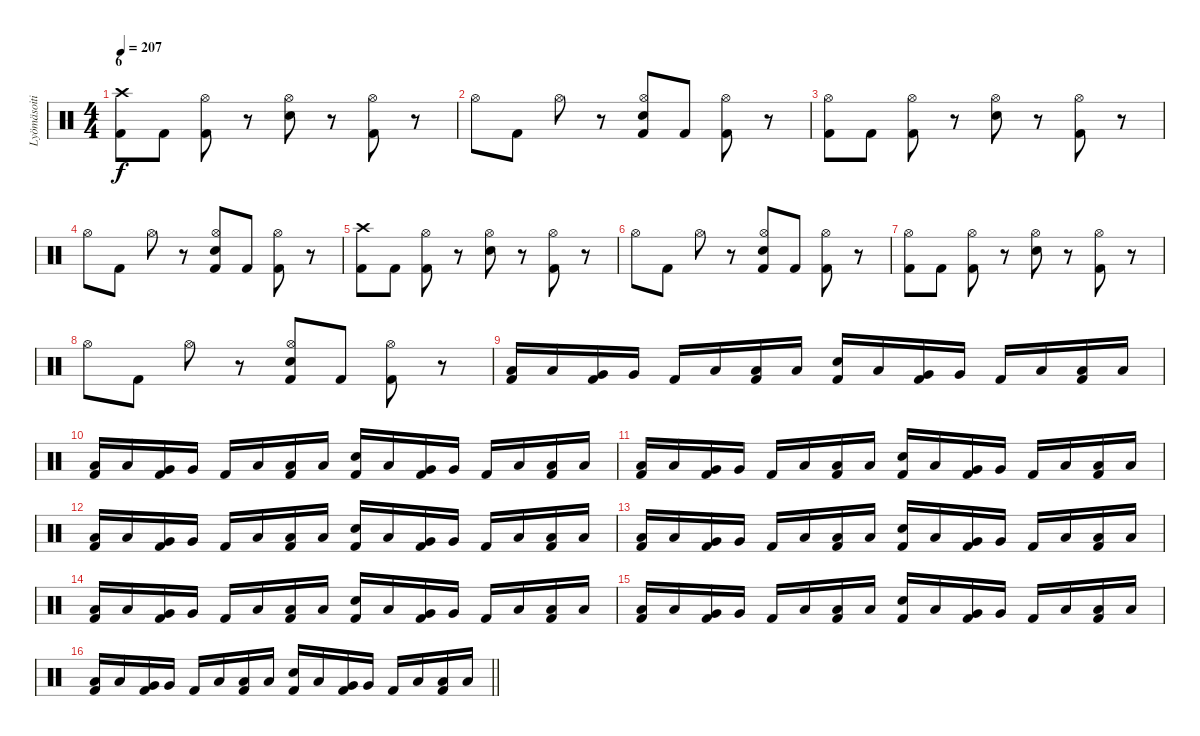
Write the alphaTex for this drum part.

\track ("Lyömäsoitin" "Lyömäsoiti") {instrument percussion}
\staff {score}
\articulation defaults
\ts (4 4)
\section ("" "6")
\tempo 207
\clef neutral
\ks c
("Crash high (hit)" "Kick (hit) 2").8{dy f} "Kick (hit) 2".8 ("Hi-Hat (open)" "Kick (hit) 2").8 r.8 ("Hi-Hat (open)" "Snare (hit) 2").8 r.8 ("Hi-Hat (open)" "Kick (hit) 2").8 r.8 |
"Hi-Hat (open)".8 "Kick (hit) 2".8 "Hi-Hat (open)".8 r.8 ("Hi-Hat (open)" "Snare (hit) 2" "Kick (hit) 2").8 "Kick (hit) 2".8 ("Hi-Hat (open)" "Kick (hit) 2").8 r.8 |
("Hi-Hat (open)" "Kick (hit) 2").8 "Kick (hit) 2".8 ("Hi-Hat (open)" "Kick (hit) 2").8 r.8 ("Hi-Hat (open)" "Snare (hit) 2").8 r.8 ("Hi-Hat (open)" "Kick (hit) 2").8 r.8 |
"Hi-Hat (open)".8 "Kick (hit) 2".8 "Hi-Hat (open)".8 r.8 ("Hi-Hat (open)" "Snare (hit) 2" "Kick (hit) 2").8 "Kick (hit) 2".8 ("Hi-Hat (open)" "Kick (hit) 2").8 r.8 |
("Crash high (hit)" "Kick (hit) 2").8 "Kick (hit) 2".8 ("Hi-Hat (open)" "Kick (hit) 2").8 r.8 ("Hi-Hat (open)" "Snare (hit) 2").8 r.8 ("Hi-Hat (open)" "Kick (hit) 2").8 r.8 |
"Hi-Hat (open)".8 "Kick (hit) 2".8 "Hi-Hat (open)".8 r.8 ("Hi-Hat (open)" "Snare (hit) 2" "Kick (hit) 2").8 "Kick (hit) 2".8 ("Hi-Hat (open)" "Kick (hit) 2").8 r.8 |
("Hi-Hat (open)" "Kick (hit) 2").8 "Kick (hit) 2".8 ("Hi-Hat (open)" "Kick (hit) 2").8 r.8 ("Hi-Hat (open)" "Snare (hit) 2").8 r.8 ("Hi-Hat (open)" "Kick (hit) 2").8 r.8 |
"Hi-Hat (open)".8 "Kick (hit) 2".8 "Hi-Hat (open)".8 r.8 ("Hi-Hat (open)" "Snare (hit) 2" "Kick (hit) 2").8 "Kick (hit) 2".8 ("Hi-Hat (open)" "Kick (hit) 2").8 r.8 |
("Low Floor Tom (hit)" "Kick (hit) 2").16 "Low Floor Tom (hit)".16 ("Very Low Tom (hit)" "Kick (hit) 2").16 "Very Low Tom (hit)".16 "Kick (hit) 2".16 "Low Tom (hit)".16 ("Low Tom (hit)" "Kick (hit) 2").16 "Low Tom (hit)".16 ("Snare (hit) 2" "Kick (hit) 2").16 "Low Floor Tom (hit)".16 ("Very Low Tom (hit)" "Kick (hit) 2").16 "Very Low Tom (hit)".16 "Kick (hit) 2".16 "Low Floor Tom (hit)".16 ("Low Floor Tom (hit)" "Kick (hit) 2").16 "Low Floor Tom (hit)".16 |
("Low Floor Tom (hit)" "Kick (hit) 2").16 "Low Floor Tom (hit)".16 ("Very Low Tom (hit)" "Kick (hit) 2").16 "Very Low Tom (hit)".16 "Kick (hit) 2".16 "Low Tom (hit)".16 ("Low Tom (hit)" "Kick (hit) 2").16 "Low Tom (hit)".16 ("Snare (hit) 2" "Kick (hit) 2").16 "Low Floor Tom (hit)".16 ("Very Low Tom (hit)" "Kick (hit) 2").16 "Very Low Tom (hit)".16 "Kick (hit) 2".16 "Low Floor Tom (hit)".16 ("Low Floor Tom (hit)" "Kick (hit) 2").16 "Low Floor Tom (hit)".16 |
("Low Floor Tom (hit)" "Kick (hit) 2").16 "Low Floor Tom (hit)".16 ("Very Low Tom (hit)" "Kick (hit) 2").16 "Very Low Tom (hit)".16 "Kick (hit) 2".16 "Low Tom (hit)".16 ("Low Tom (hit)" "Kick (hit) 2").16 "Low Tom (hit)".16 ("Snare (hit) 2" "Kick (hit) 2").16 "Low Floor Tom (hit)".16 ("Very Low Tom (hit)" "Kick (hit) 2").16 "Very Low Tom (hit)".16 "Kick (hit) 2".16 "Low Floor Tom (hit)".16 ("Low Floor Tom (hit)" "Kick (hit) 2").16 "Low Floor Tom (hit)".16 |
("Low Floor Tom (hit)" "Kick (hit) 2").16 "Low Floor Tom (hit)".16 ("Very Low Tom (hit)" "Kick (hit) 2").16 "Very Low Tom (hit)".16 "Kick (hit) 2".16 "Low Tom (hit)".16 ("Low Tom (hit)" "Kick (hit) 2").16 "Low Tom (hit)".16 ("Snare (hit) 2" "Kick (hit) 2").16 "Low Floor Tom (hit)".16 ("Very Low Tom (hit)" "Kick (hit) 2").16 "Very Low Tom (hit)".16 "Kick (hit) 2".16 "Low Floor Tom (hit)".16 ("Low Floor Tom (hit)" "Kick (hit) 2").16 "Low Floor Tom (hit)".16 |
("Low Floor Tom (hit)" "Kick (hit) 2").16 "Low Floor Tom (hit)".16 ("Very Low Tom (hit)" "Kick (hit) 2").16 "Very Low Tom (hit)".16 "Kick (hit) 2".16 "Low Tom (hit)".16 ("Low Tom (hit)" "Kick (hit) 2").16 "Low Tom (hit)".16 ("Snare (hit) 2" "Kick (hit) 2").16 "Low Floor Tom (hit)".16 ("Very Low Tom (hit)" "Kick (hit) 2").16 "Very Low Tom (hit)".16 "Kick (hit) 2".16 "Low Floor Tom (hit)".16 ("Low Floor Tom (hit)" "Kick (hit) 2").16 "Low Floor Tom (hit)".16 |
("Low Floor Tom (hit)" "Kick (hit) 2").16 "Low Floor Tom (hit)".16 ("Very Low Tom (hit)" "Kick (hit) 2").16 "Very Low Tom (hit)".16 "Kick (hit) 2".16 "Low Tom (hit)".16 ("Low Tom (hit)" "Kick (hit) 2").16 "Low Tom (hit)".16 ("Snare (hit) 2" "Kick (hit) 2").16 "Low Floor Tom (hit)".16 ("Very Low Tom (hit)" "Kick (hit) 2").16 "Very Low Tom (hit)".16 "Kick (hit) 2".16 "Low Floor Tom (hit)".16 ("Low Floor Tom (hit)" "Kick (hit) 2").16 "Low Floor Tom (hit)".16 |
("Low Floor Tom (hit)" "Kick (hit) 2").16 "Low Floor Tom (hit)".16 ("Very Low Tom (hit)" "Kick (hit) 2").16 "Very Low Tom (hit)".16 "Kick (hit) 2".16 "Low Tom (hit)".16 ("Low Tom (hit)" "Kick (hit) 2").16 "Low Tom (hit)".16 ("Snare (hit) 2" "Kick (hit) 2").16 "Low Floor Tom (hit)".16 ("Very Low Tom (hit)" "Kick (hit) 2").16 "Very Low Tom (hit)".16 "Kick (hit) 2".16 "Low Floor Tom (hit)".16 ("Low Floor Tom (hit)" "Kick (hit) 2").16 "Low Floor Tom (hit)".16 |
\barLineRight lightlight
("Low Floor Tom (hit)" "Kick (hit) 2").16 "Low Floor Tom (hit)".16 ("Very Low Tom (hit)" "Kick (hit) 2").16 "Very Low Tom (hit)".16 "Kick (hit) 2".16 "Low Tom (hit)".16 ("Low Tom (hit)" "Kick (hit) 2").16 "Low Tom (hit)".16 ("Snare (hit) 2" "Kick (hit) 2").16 "Low Floor Tom (hit)".16 ("Very Low Tom (hit)" "Kick (hit) 2").16 "Very Low Tom (hit)".16 "Kick (hit) 2".16 "Low Floor Tom (hit)".16 ("Low Floor Tom (hit)" "Kick (hit) 2").16 "Low Floor Tom (hit)".16
